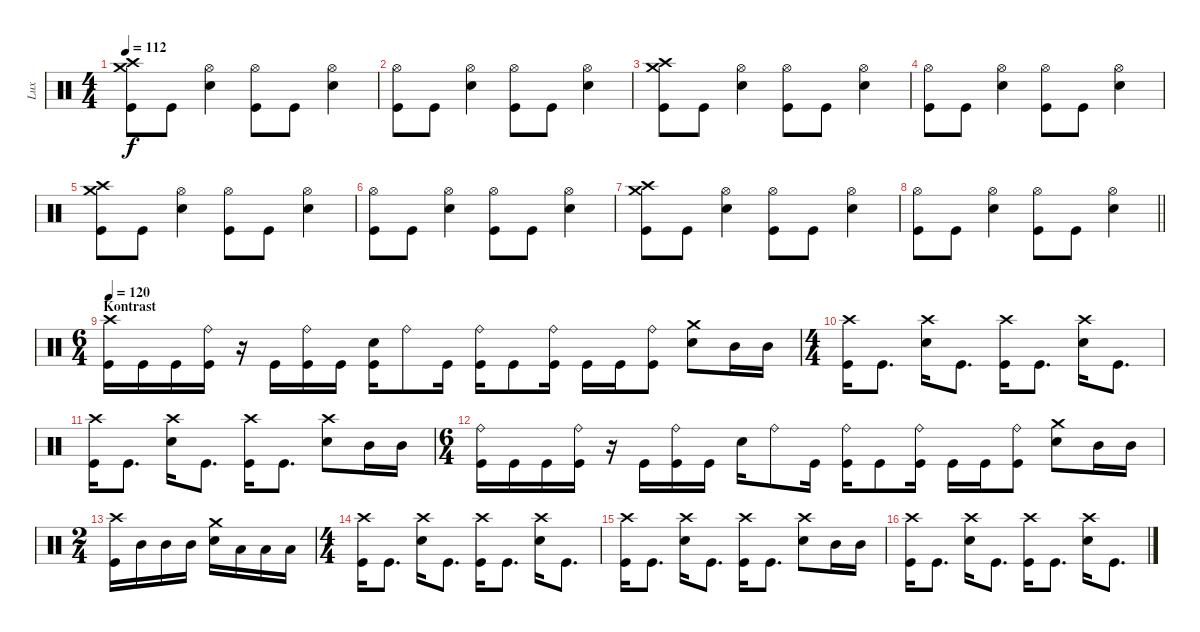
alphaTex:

\track ("Lux" "Lux") {instrument percussion bank 32}
\staff {score}
\articulation defaults
\ts (4 4)
\tempo 112
\clef neutral
\ks c
("Crash high (hit)" "Crash medium (hit)" "Kick (hit)").8{dy f} "Kick (hit)".8 ("Hi-Hat (open)" "Snare (hit) 2").4 ("Hi-Hat (open)" "Kick (hit)").8 "Kick (hit)".8 ("Hi-Hat (open)" "Snare (hit) 2").4 |
("Hi-Hat (open)" "Kick (hit)").8 "Kick (hit)".8 ("Hi-Hat (open)" "Snare (hit) 2").4 ("Hi-Hat (open)" "Kick (hit)").8 "Kick (hit)".8 ("Hi-Hat (open)" "Snare (hit) 2").4 |
("Crash high (hit)" "Crash medium (hit)" "Kick (hit)").8 "Kick (hit)".8 ("Hi-Hat (open)" "Snare (hit) 2").4 ("Hi-Hat (open)" "Kick (hit)").8 "Kick (hit)".8 ("Hi-Hat (open)" "Snare (hit) 2").4 |
("Hi-Hat (open)" "Kick (hit)").8 "Kick (hit)".8 ("Hi-Hat (open)" "Snare (hit) 2").4 ("Hi-Hat (open)" "Kick (hit)").8 "Kick (hit)".8 ("Hi-Hat (open)" "Snare (hit) 2").4 |
("Crash high (hit)" "Crash medium (hit)" "Kick (hit)").8 "Kick (hit)".8 ("Hi-Hat (open)" "Snare (hit) 2").4 ("Hi-Hat (open)" "Kick (hit)").8 "Kick (hit)".8 ("Hi-Hat (open)" "Snare (hit) 2").4 |
("Hi-Hat (open)" "Kick (hit)").8 "Kick (hit)".8 ("Hi-Hat (open)" "Snare (hit) 2").4 ("Hi-Hat (open)" "Kick (hit)").8 "Kick (hit)".8 ("Hi-Hat (open)" "Snare (hit) 2").4 |
("Crash high (hit)" "Crash medium (hit)" "Kick (hit)").8 "Kick (hit)".8 ("Hi-Hat (open)" "Snare (hit) 2").4 ("Hi-Hat (open)" "Kick (hit)").8 "Kick (hit)".8 ("Hi-Hat (open)" "Snare (hit) 2").4 |
\barLineRight lightlight
("Hi-Hat (open)" "Kick (hit)").8 "Kick (hit)".8 ("Hi-Hat (open)" "Snare (hit) 2").4 ("Hi-Hat (open)" "Kick (hit)").8 "Kick (hit)".8 ("Hi-Hat (open)" "Snare (hit) 2").4 |
\ts (6 4)
\section ("" "Kontrast")
\tempo 120
("Crash high (hit)" "Kick (hit)").16 "Kick (hit)".16 "Kick (hit)".16 ("Ride (bell)" "Kick (hit)").16 r.16 "Kick (hit)".16 ("Ride (bell)" "Kick (hit)").16 "Kick (hit)".16 ("Snare (hit) 2" "Kick (hit)").16 "Ride (bell)".8 "Kick (hit)".16 ("Ride (bell)" "Kick (hit)").16 "Kick (hit)".8 ("Ride (bell)" "Kick (hit)").16 "Kick (hit)".16 "Kick (hit)".16 ("Ride (bell)" "Kick (hit)").8 ("Crash medium (hit)" "Snare (hit) 2").8 "Mid Tom (hit)".16 "Mid Tom (hit)".16 |
\ts (4 4)
("Crash high (hit)" "Kick (hit)").16 "Kick (hit)".8{d} ("Crash high (hit)" "Snare (hit) 2").16 "Kick (hit)".8{d} ("Crash high (hit)" "Kick (hit)").16 "Kick (hit)".8{d} ("Crash high (hit)" "Snare (hit) 2").16 "Kick (hit)".8{d} |
("Crash high (hit)" "Kick (hit)").16 "Kick (hit)".8{d} ("Crash high (hit)" "Snare (hit) 2").16 "Kick (hit)".8{d} ("Crash high (hit)" "Kick (hit)").16 "Kick (hit)".8{d} ("Crash high (hit)" "Snare (hit) 2").8 "Mid Tom (hit)".16 "Mid Tom (hit)".16 |
\ts (6 4)
("Ride (bell)" "Kick (hit)").16 "Kick (hit)".16 "Kick (hit)".16 ("Ride (bell)" "Kick (hit)").16 r.16 "Kick (hit)".16 ("Ride (bell)" "Kick (hit)").16 "Kick (hit)".16 "Snare (hit) 2".16 "Ride (bell)".8 "Kick (hit)".16 ("Ride (bell)" "Kick (hit)").16 "Kick (hit)".8 ("Ride (bell)" "Kick (hit)").16 "Kick (hit)".16 "Kick (hit)".16 ("Ride (bell)" "Kick (hit)").8 ("Crash medium (hit)" "Snare (hit) 2").8 "Mid Tom (hit)".16 "Mid Tom (hit)".16 |
\ts (2 4)
("Crash high (hit)" "Kick (hit)").16 "Mid Tom (hit)".16 "Mid Tom (hit)".16 "Mid Tom (hit)".16 ("Crash medium (hit)" "Snare (hit) 2").16 "Low Tom (hit)".16 "Low Tom (hit)".16 "Low Tom (hit)".16 |
\ts (4 4)
("Crash high (hit)" "Kick (hit)").16 "Kick (hit)".8{d} ("Crash high (hit)" "Snare (hit) 2").16 "Kick (hit)".8{d} ("Crash high (hit)" "Kick (hit)").16 "Kick (hit)".8{d} ("Crash high (hit)" "Snare (hit) 2").16 "Kick (hit)".8{d} |
("Crash high (hit)" "Kick (hit)").16 "Kick (hit)".8{d} ("Crash high (hit)" "Snare (hit) 2").16 "Kick (hit)".8{d} ("Crash high (hit)" "Kick (hit)").16 "Kick (hit)".8{d} ("Crash high (hit)" "Snare (hit) 2").8 "Mid Tom (hit)".16 "Mid Tom (hit)".16 |
("Crash high (hit)" "Kick (hit)").16 "Kick (hit)".8{d} ("Crash high (hit)" "Snare (hit) 2").16 "Kick (hit)".8{d} ("Crash high (hit)" "Kick (hit)").16 "Kick (hit)".8{d} ("Crash high (hit)" "Snare (hit) 2").16 "Kick (hit)".8{d}
